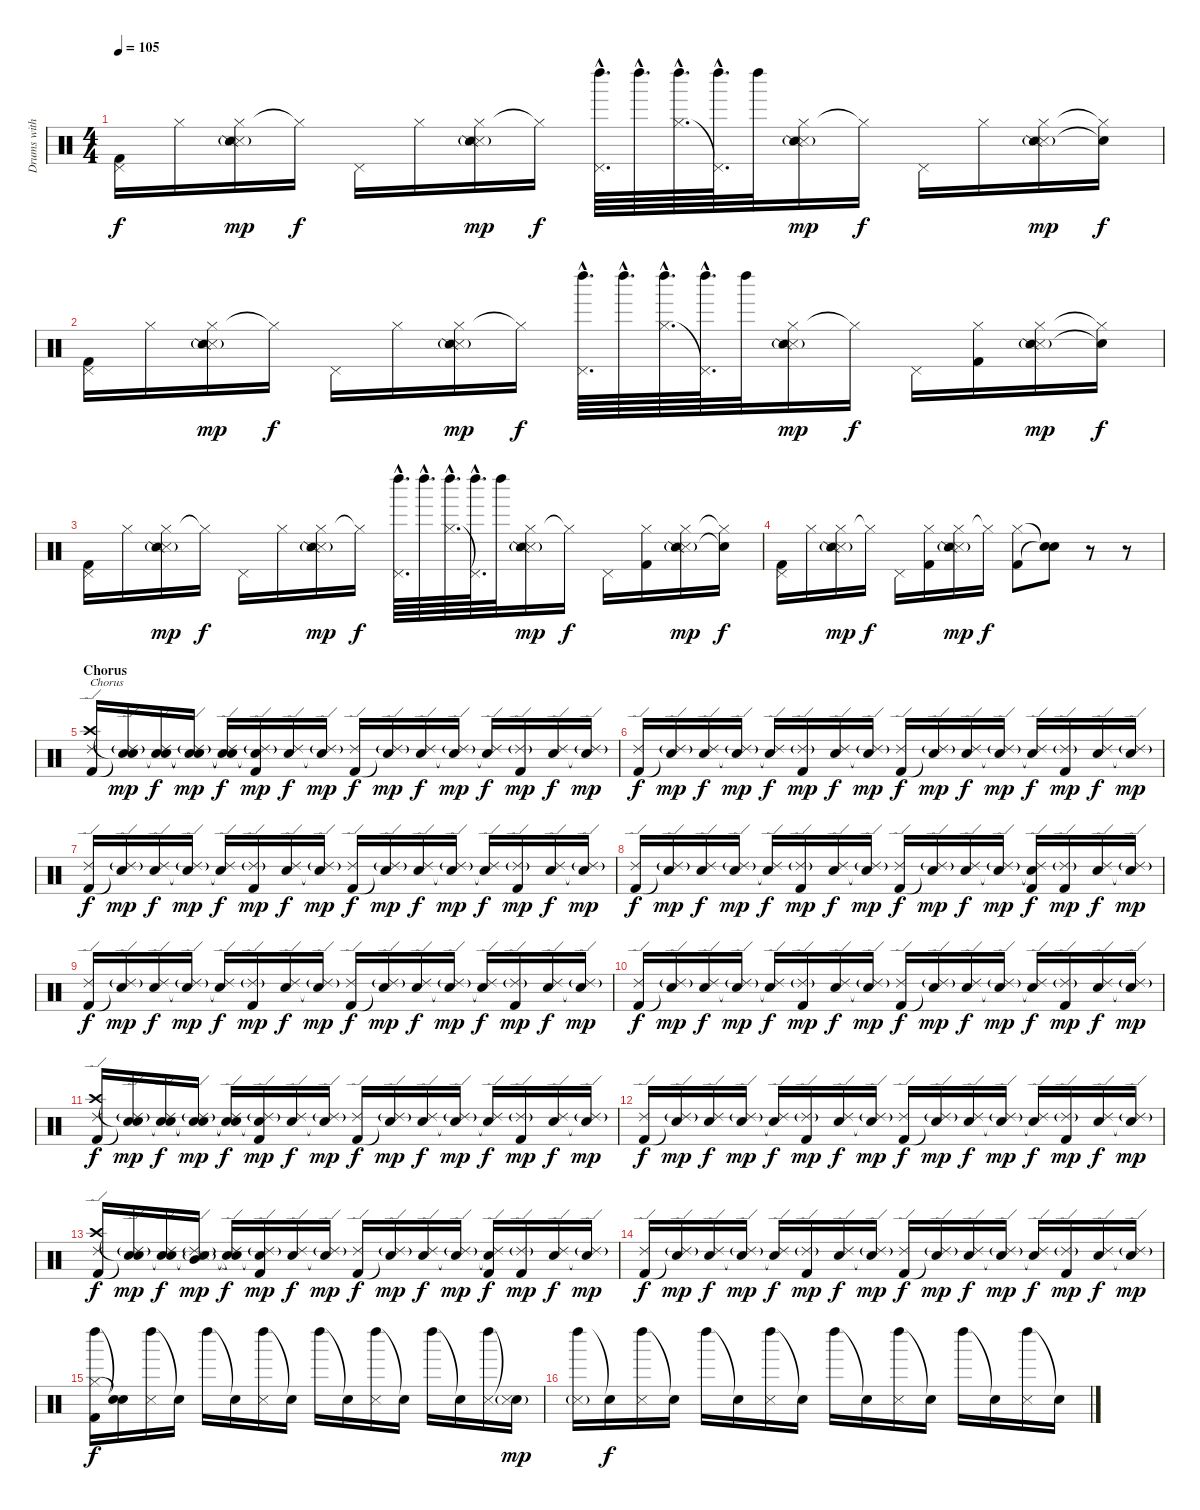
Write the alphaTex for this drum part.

\track ("Drums with sampled drums (Rob and Joe)" "Drums with") {instrument percussion}
\staff {score}
\articulation defaults
\ts (4 4)
\tempo 105
\clef neutral
\ks c
("Pedal Hi-Hat (hit)" "Kick (hit) 2").16{dy f} "Hi-Hat (closed)".16 ("Hi-Hat (closed)" "Snare (side stick) 3" "Snare (side stick) 2"{g}).16{dy mp} "Hi-Hat (closed)"{t}.16{dy f} "Pedal Hi-Hat (hit)".16 "Hi-Hat (closed)".16 ("Hi-Hat (closed)" "Snare (side stick) 3" "Snare (side stick) 2"{g}).16{dy mp} "Hi-Hat (closed)"{t}.16{dy f} ("Left Maraca (hit)"{hac} "Pedal Hi-Hat (hit)"{hac}).64{d} "Left Maraca (hit)"{hac}.64{d} ("Left Maraca (hit)"{hac} "Hi-Hat (closed)"{hac}).64{d} ("Left Maraca (hit)"{hac} "Pedal Hi-Hat (hit)"{hac t}).64{d} "Left Maraca (hit)".32 ("Hi-Hat (closed)" "Snare (side stick) 3" "Snare (side stick) 2"{g}).16{dy mp} "Hi-Hat (closed)"{t}.16{dy f} "Pedal Hi-Hat (hit)".16 "Hi-Hat (closed)".16 ("Hi-Hat (closed)" "Snare (side stick) 3" "Snare (side stick) 2"{g}).16{dy mp} ("Hi-Hat (closed)"{t} "Snare (hit)"{t}).16{dy f} |
("Pedal Hi-Hat (hit)" "Kick (hit) 2").16 "Hi-Hat (closed)".16 ("Hi-Hat (closed)" "Snare (side stick) 3" "Snare (side stick) 2"{g}).16{dy mp} "Hi-Hat (closed)"{t}.16{dy f} "Pedal Hi-Hat (hit)".16 "Hi-Hat (closed)".16 ("Hi-Hat (closed)" "Snare (side stick) 3" "Snare (side stick) 2"{g}).16{dy mp} "Hi-Hat (closed)"{t}.16{dy f} ("Left Maraca (hit)"{hac} "Pedal Hi-Hat (hit)"{hac}).64{d} "Left Maraca (hit)"{hac}.64{d} ("Left Maraca (hit)"{hac} "Hi-Hat (closed)"{hac}).64{d} ("Left Maraca (hit)"{hac} "Pedal Hi-Hat (hit)"{hac t}).64{d} "Left Maraca (hit)".32 ("Hi-Hat (closed)" "Snare (side stick) 3" "Snare (side stick) 2"{g}).16{dy mp} "Hi-Hat (closed)"{t}.16{dy f} "Pedal Hi-Hat (hit)".16 ("Hi-Hat (closed)" "Kick (hit) 2").16 ("Hi-Hat (closed)" "Snare (side stick) 3" "Snare (side stick) 2"{g}).16{dy mp} ("Hi-Hat (closed)"{t} "Snare (hit)"{t}).16{dy f} |
("Pedal Hi-Hat (hit)" "Kick (hit) 2").16 "Hi-Hat (closed)".16 ("Hi-Hat (closed)" "Snare (side stick) 3" "Snare (side stick) 2"{g}).16{dy mp} "Hi-Hat (closed)"{t}.16{dy f} "Pedal Hi-Hat (hit)".16 "Hi-Hat (closed)".16 ("Hi-Hat (closed)" "Snare (side stick) 3" "Snare (side stick) 2"{g}).16{dy mp} "Hi-Hat (closed)"{t}.16{dy f} ("Left Maraca (hit)"{hac} "Pedal Hi-Hat (hit)"{hac}).64{d} "Left Maraca (hit)"{hac}.64{d} ("Left Maraca (hit)"{hac} "Hi-Hat (closed)"{hac}).64{d} ("Left Maraca (hit)"{hac} "Pedal Hi-Hat (hit)"{hac t}).64{d} "Left Maraca (hit)".32 ("Hi-Hat (closed)" "Snare (side stick) 3" "Snare (side stick) 2"{g}).16{dy mp} "Hi-Hat (closed)"{t}.16{dy f} "Pedal Hi-Hat (hit)".16 ("Hi-Hat (closed)" "Kick (hit) 2").16 ("Hi-Hat (closed)" "Snare (side stick) 3" "Snare (side stick) 2"{g}).16{dy mp} ("Hi-Hat (closed)"{t} "Snare (hit)"{t}).16{dy f} |
("Pedal Hi-Hat (hit)" "Kick (hit) 2").16 "Hi-Hat (closed)".16 ("Hi-Hat (closed)" "Snare (side stick) 3" "Snare (side stick) 2"{g}).16{dy mp} "Hi-Hat (closed)"{t}.16{dy f} "Pedal Hi-Hat (hit)".16 ("Hi-Hat (closed)" "Kick (hit) 2").16 ("Hi-Hat (closed)" "Snare (side stick) 3" "Snare (side stick) 2"{g}).16{dy mp} "Hi-Hat (closed)"{t}.16{dy f} ("Hi-Hat (closed)" "Kick (hit) 2").8 ("Snare (hit)"{t} "Snare (hit)"{t}).8 r.8 r.8 |
\section ("" "Chorus")
("Crash high (hit)" "Ride (edge) 2" "Kick (hit) 2").16{txt "Chorus"} ("Snare (hit)"{t} "Ride (edge) 2"{g} "Snare (hit)"{t}).16{dy mp} ("Snare (hit)"{t} "Ride (edge) 2" "Electric Snare (hit)").16{dy f} ("Snare (hit)"{t} "Ride (edge) 2"{g} "Snare (hit)"{t}).16{dy mp} ("Snare (hit)"{t} "Ride (edge) 2" "Snare (hit)"{t}).16{dy f} ("Snare (hit)"{t} "Ride (edge) 2"{g} "Kick (hit) 2").16{dy mp} ("Ride (edge) 2" "Electric Snare (hit)").16{dy f} ("Ride (edge) 2"{g} "Snare (hit)"{t}).16{dy mp} ("Ride (edge) 2" "Kick (hit) 2").16{dy f} ("Ride (edge) 2"{g} "Snare (hit)"{t}).16{dy mp} ("Ride (edge) 2" "Electric Snare (hit)").16{dy f} ("Ride (edge) 2"{g} "Snare (hit)"{t}).16{dy mp} ("Ride (edge) 2" "Snare (hit)"{t}).16{dy f} ("Ride (edge) 2"{g} "Kick (hit) 2").16{dy mp} ("Ride (edge) 2" "Electric Snare (hit)").16{dy f} ("Ride (edge) 2"{g} "Snare (hit)"{t}).16{dy mp} |
("Ride (edge) 2" "Kick (hit) 2").16{dy f} ("Ride (edge) 2"{g} "Snare (hit)"{t}).16{dy mp} ("Ride (edge) 2" "Electric Snare (hit)").16{dy f} ("Ride (edge) 2"{g} "Snare (hit)"{t}).16{dy mp} ("Ride (edge) 2" "Snare (hit)"{t}).16{dy f} ("Ride (edge) 2"{g} "Kick (hit) 2").16{dy mp} ("Ride (edge) 2" "Electric Snare (hit)").16{dy f} ("Ride (edge) 2"{g} "Snare (hit)"{t}).16{dy mp} ("Ride (edge) 2" "Kick (hit) 2").16{dy f} ("Ride (edge) 2"{g} "Snare (hit)"{t}).16{dy mp} ("Ride (edge) 2" "Electric Snare (hit)").16{dy f} ("Ride (edge) 2"{g} "Snare (hit)"{t}).16{dy mp} ("Ride (edge) 2" "Snare (hit)"{t}).16{dy f} ("Ride (edge) 2"{g} "Kick (hit) 2").16{dy mp} ("Ride (edge) 2" "Electric Snare (hit)").16{dy f} ("Ride (edge) 2"{g} "Snare (hit)"{t}).16{dy mp} |
("Ride (edge) 2" "Kick (hit) 2").16{dy f} ("Ride (edge) 2"{g} "Snare (hit)"{t}).16{dy mp} ("Ride (edge) 2" "Electric Snare (hit)").16{dy f} ("Ride (edge) 2"{g} "Snare (hit)"{t}).16{dy mp} ("Ride (edge) 2" "Snare (hit)"{t}).16{dy f} ("Ride (edge) 2"{g} "Kick (hit) 2").16{dy mp} ("Ride (edge) 2" "Electric Snare (hit)").16{dy f} ("Ride (edge) 2"{g} "Snare (hit)"{t}).16{dy mp} ("Ride (edge) 2" "Kick (hit) 2").16{dy f} ("Ride (edge) 2"{g} "Snare (hit)"{t}).16{dy mp} ("Ride (edge) 2" "Electric Snare (hit)").16{dy f} ("Ride (edge) 2"{g} "Snare (hit)"{t}).16{dy mp} ("Ride (edge) 2" "Snare (hit)"{t}).16{dy f} ("Ride (edge) 2"{g} "Kick (hit) 2").16{dy mp} ("Ride (edge) 2" "Electric Snare (hit)").16{dy f} ("Ride (edge) 2"{g} "Snare (hit)"{t}).16{dy mp} |
("Ride (edge) 2" "Kick (hit) 2").16{dy f} ("Ride (edge) 2"{g} "Snare (hit)"{t}).16{dy mp} ("Ride (edge) 2" "Electric Snare (hit)").16{dy f} ("Ride (edge) 2"{g} "Electric Snare (hit)").16{dy mp} ("Ride (edge) 2" "Snare (hit)"{t}).16{dy f} ("Ride (edge) 2"{g} "Kick (hit) 2").16{dy mp} ("Ride (edge) 2" "Electric Snare (hit)").16{dy f} ("Ride (edge) 2"{g} "Snare (hit)"{t}).16{dy mp} ("Ride (edge) 2" "Kick (hit) 2").16{dy f} ("Ride (edge) 2"{g} "Snare (hit)"{t}).16{dy mp} ("Ride (edge) 2" "Electric Snare (hit)").16{dy f} ("Ride (edge) 2"{g} "Snare (hit)"{t}).16{dy mp} ("Ride (edge) 2" "Snare (hit)"{t} "Kick (hit) 2").16{dy f} ("Ride (edge) 2"{g} "Kick (hit) 2").16{dy mp} ("Ride (edge) 2" "Electric Snare (hit)").16{dy f} ("Ride (edge) 2"{g} "Snare (hit)"{t}).16{dy mp} |
("Ride (edge) 2" "Kick (hit) 2").16{dy f} ("Ride (edge) 2"{g} "Snare (hit)"{t}).16{dy mp} ("Ride (edge) 2" "Electric Snare (hit)").16{dy f} ("Ride (edge) 2"{g} "Snare (hit)"{t}).16{dy mp} ("Ride (edge) 2" "Snare (hit)"{t}).16{dy f} ("Ride (edge) 2"{g} "Kick (hit) 2").16{dy mp} ("Ride (edge) 2" "Electric Snare (hit)").16{dy f} ("Ride (edge) 2"{g} "Snare (hit)"{t}).16{dy mp} ("Ride (edge) 2" "Kick (hit) 2").16{dy f} ("Ride (edge) 2"{g} "Snare (hit)"{t}).16{dy mp} ("Ride (edge) 2" "Electric Snare (hit)").16{dy f} ("Ride (edge) 2"{g} "Snare (hit)"{t}).16{dy mp} ("Ride (edge) 2" "Snare (hit)"{t}).16{dy f} ("Ride (edge) 2"{g} "Kick (hit) 2").16{dy mp} ("Ride (edge) 2" "Electric Snare (hit)").16{dy f} ("Ride (edge) 2"{g} "Snare (hit)"{t}).16{dy mp} |
("Ride (edge) 2" "Kick (hit) 2").16{dy f} ("Ride (edge) 2"{g} "Snare (hit)"{t}).16{dy mp} ("Ride (edge) 2" "Electric Snare (hit)").16{dy f} ("Ride (edge) 2"{g} "Snare (hit)"{t}).16{dy mp} ("Ride (edge) 2" "Snare (hit)"{t}).16{dy f} ("Ride (edge) 2"{g} "Kick (hit) 2").16{dy mp} ("Ride (edge) 2" "Electric Snare (hit)").16{dy f} ("Ride (edge) 2"{g} "Snare (hit)"{t}).16{dy mp} ("Ride (edge) 2" "Kick (hit) 2").16{dy f} ("Ride (edge) 2"{g} "Snare (hit)"{t}).16{dy mp} ("Ride (edge) 2" "Electric Snare (hit)").16{dy f} ("Ride (edge) 2"{g} "Snare (hit)"{t}).16{dy mp} ("Ride (edge) 2" "Snare (hit)"{t}).16{dy f} ("Ride (edge) 2"{g} "Kick (hit) 2").16{dy mp} ("Ride (edge) 2" "Electric Snare (hit)").16{dy f} ("Ride (edge) 2"{g} "Snare (hit)"{t}).16{dy mp} |
("Crash high (hit)" "Ride (edge) 2" "Kick (hit) 2").16{dy f} ("Snare (hit)"{t} "Ride (edge) 2"{g} "Snare (hit)"{t}).16{dy mp} ("Snare (hit)"{t} "Ride (edge) 2" "Electric Snare (hit)").16{dy f} ("Snare (hit)"{t} "Ride (edge) 2"{g} "Snare (hit)"{t}).16{dy mp} ("Snare (hit)"{t} "Ride (edge) 2" "Snare (hit)"{t}).16{dy f} ("Snare (hit)"{t} "Ride (edge) 2"{g} "Kick (hit) 2").16{dy mp} ("Ride (edge) 2" "Electric Snare (hit)").16{dy f} ("Ride (edge) 2"{g} "Snare (hit)"{t}).16{dy mp} ("Ride (edge) 2" "Kick (hit) 2").16{dy f} ("Ride (edge) 2"{g} "Snare (hit)"{t}).16{dy mp} ("Ride (edge) 2" "Electric Snare (hit)").16{dy f} ("Ride (edge) 2"{g} "Snare (hit)"{t}).16{dy mp} ("Ride (edge) 2" "Snare (hit)"{t}).16{dy f} ("Ride (edge) 2"{g} "Kick (hit) 2").16{dy mp} ("Ride (edge) 2" "Electric Snare (hit)").16{dy f} ("Ride (edge) 2"{g} "Snare (hit)"{t}).16{dy mp} |
("Ride (edge) 2" "Kick (hit) 2").16{dy f} ("Ride (edge) 2"{g} "Snare (hit)"{t}).16{dy mp} ("Ride (edge) 2" "Electric Snare (hit)").16{dy f} ("Ride (edge) 2"{g} "Electric Snare (hit)").16{dy mp} ("Ride (edge) 2" "Snare (hit)"{t}).16{dy f} ("Ride (edge) 2"{g} "Kick (hit) 2").16{dy mp} ("Ride (edge) 2" "Electric Snare (hit)").16{dy f} ("Ride (edge) 2"{g} "Snare (hit)"{t}).16{dy mp} ("Ride (edge) 2" "Kick (hit) 2").16{dy f} ("Ride (edge) 2"{g} "Snare (hit)"{t}).16{dy mp} ("Ride (edge) 2" "Electric Snare (hit)").16{dy f} ("Ride (edge) 2"{g} "Snare (hit)"{t}).16{dy mp} ("Ride (edge) 2" "Snare (hit)"{t}).16{dy f} ("Ride (edge) 2"{g} "Kick (hit) 2").16{dy mp} ("Ride (edge) 2" "Electric Snare (hit)").16{dy f} ("Ride (edge) 2"{g} "Snare (hit)"{t}).16{dy mp} |
("Crash high (hit)" "Ride (edge) 2" "Kick (hit) 2").16{dy f} ("Snare (hit)"{t} "Ride (edge) 2"{g} "Snare (hit)"{t}).16{dy mp} ("Snare (hit)"{t} "Ride (edge) 2" "Electric Snare (hit)").16{dy f} ("Snare (hit)"{t} "Ride (edge) 2"{g} "Mid Tom (hit)" "Metronome (hit)"{g}).16{dy mp} ("Snare (hit)"{t} "Ride (edge) 2" "Snare (hit)"{t}).16{dy f} ("Snare (hit)"{t} "Ride (edge) 2"{g} "Kick (hit) 2").16{dy mp} ("Ride (edge) 2" "Electric Snare (hit)").16{dy f} ("Ride (edge) 2"{g} "Snare (hit)"{t}).16{dy mp} ("Ride (edge) 2" "Kick (hit) 2").16{dy f} ("Ride (edge) 2"{g} "Snare (hit)"{t}).16{dy mp} ("Ride (edge) 2" "Electric Snare (hit)").16{dy f} ("Ride (edge) 2"{g} "Snare (hit)"{t}).16{dy mp} ("Ride (edge) 2" "Snare (hit)"{t} "Kick (hit) 2").16{dy f} ("Ride (edge) 2"{g} "Kick (hit) 2").16{dy mp} ("Ride (edge) 2" "Electric Snare (hit)").16{dy f} ("Ride (edge) 2"{g} "Snare (hit)"{t}).16{dy mp} |
("Ride (edge) 2" "Kick (hit) 2").16{dy f} ("Ride (edge) 2"{g} "Snare (hit)"{t}).16{dy mp} ("Ride (edge) 2" "Electric Snare (hit)").16{dy f} ("Ride (edge) 2"{g} "Snare (hit)"{t}).16{dy mp} ("Ride (edge) 2" "Snare (hit)"{t}).16{dy f} ("Ride (edge) 2"{g} "Kick (hit) 2").16{dy mp} ("Ride (edge) 2" "Electric Snare (hit)").16{dy f} ("Ride (edge) 2"{g} "Snare (hit)"{t}).16{dy mp} ("Ride (edge) 2" "Kick (hit) 2").16{dy f} ("Ride (edge) 2"{g} "Snare (hit)"{t}).16{dy mp} ("Ride (edge) 2" "Electric Snare (hit)").16{dy f} ("Ride (edge) 2"{g} "Snare (hit)"{t}).16{dy mp} ("Ride (edge) 2" "Snare (hit)"{t}).16{dy f} ("Ride (edge) 2"{g} "Kick (hit) 2").16{dy mp} ("Ride (edge) 2" "Electric Snare (hit)").16{dy f} ("Ride (edge) 2"{g} "Snare (hit)"{t}).16{dy mp} |
("Hi-Hat (closed)" "Left Maraca (hit)" "Kick (hit) 2").16{dy f} ("Snare (hit)"{t} "Snare (hit)"{t}).16 ("Left Maraca (hit)" "Snare (side stick) 3").16 "Snare (hit)"{t}.16 "Left Maraca (hit)".16 "Snare (hit)"{t}.16 ("Left Maraca (hit)" "Snare (side stick) 3").16 "Snare (hit)"{t}.16 "Left Maraca (hit)".16 "Snare (hit)"{t}.16 ("Left Maraca (hit)" "Snare (side stick) 3").16 "Snare (hit)"{t}.16 "Left Maraca (hit)".16 "Snare (hit)"{t}.16 ("Left Maraca (hit)" "Snare (side stick) 3").16 ("Snare (hit)"{t} "Metronome (hit)"{g}).16{dy mp} |
("Left Maraca (hit)" "Metronome (hit)"{g}).16 "Snare (hit)"{t}.16{dy f} ("Left Maraca (hit)" "Snare (side stick) 3").16 "Snare (hit)"{t}.16 "Left Maraca (hit)".16 "Snare (hit)"{t}.16 ("Left Maraca (hit)" "Snare (side stick) 3").16 "Snare (hit)"{t}.16 "Left Maraca (hit)".16 "Snare (hit)"{t}.16 ("Left Maraca (hit)" "Snare (side stick) 3").16 "Snare (hit)"{t}.16 "Left Maraca (hit)".16 "Snare (hit)"{t}.16 ("Left Maraca (hit)" "Snare (side stick) 3").16 "Snare (hit)"{t}.16
